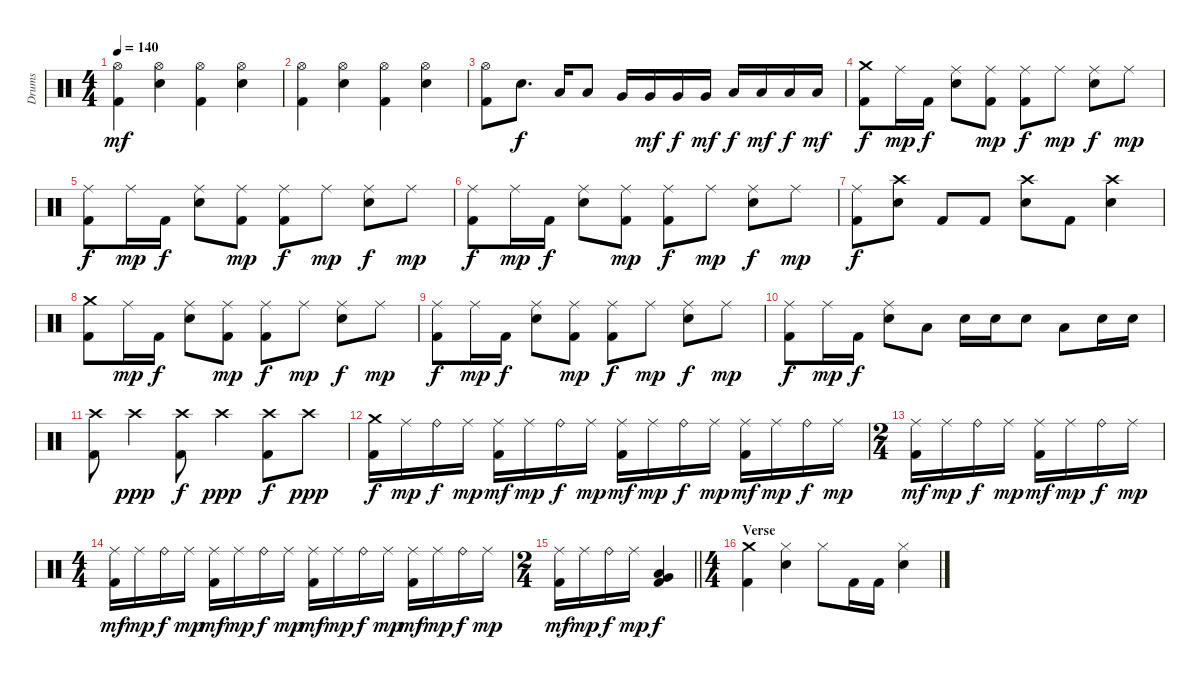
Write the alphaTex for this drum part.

\track ("Drums" "Drums") {instrument percussion}
\staff {score}
\articulation defaults
\ts (4 4)
\tempo 140
\clef neutral
\ks c
("Kick (hit) 2" "Hi-Hat (open)").4{dy mf} ("Hi-Hat (open)" "Electric Snare (hit)").4 ("Kick (hit) 2" "Hi-Hat (open)").4 ("Hi-Hat (open)" "Electric Snare (hit)").4 |
("Kick (hit) 2" "Hi-Hat (open)").4 ("Hi-Hat (open)" "Electric Snare (hit)").4 ("Kick (hit) 2" "Hi-Hat (open)").4 ("Hi-Hat (open)" "Electric Snare (hit)").4 |
("Kick (hit) 2" "Hi-Hat (open)").8 "Electric Snare (hit)".8{d dy f} "Low Tom (hit)".16 "Low Tom (hit)".8 "Very Low Tom (hit)".16 "Very Low Tom (hit)".16{dy mf} "Very Low Tom (hit)".16{dy f} "Very Low Tom (hit)".16{dy mf} "Low Floor Tom (hit)".16{dy f} "Low Floor Tom (hit)".16{dy mf} "Low Floor Tom (hit)".16{dy f} "Low Floor Tom (hit)".16{dy mf} |
("Kick (hit) 2" "Crash medium (hit)").8{dy f} "Ride (middle)".16{dy mp} "Kick (hit) 2".16{dy f} ("Ride (middle)" "Electric Snare (hit)").8 ("Kick (hit) 2" "Ride (middle)").8{dy mp} ("Kick (hit) 2" "Ride (middle)").8{dy f} "Ride (middle)".8{dy mp} ("Ride (middle)" "Electric Snare (hit)").8{dy f} "Ride (middle)".8{dy mp} |
("Kick (hit) 2" "Ride (middle)").8{dy f} "Ride (middle)".16{dy mp} "Kick (hit) 2".16{dy f} ("Ride (middle)" "Electric Snare (hit)").8 ("Kick (hit) 2" "Ride (middle)").8{dy mp} ("Kick (hit) 2" "Ride (middle)").8{dy f} "Ride (middle)".8{dy mp} ("Ride (middle)" "Electric Snare (hit)").8{dy f} "Ride (middle)".8{dy mp} |
("Kick (hit) 2" "Ride (middle)").8{dy f} "Ride (middle)".16{dy mp} "Kick (hit) 2".16{dy f} ("Ride (middle)" "Electric Snare (hit)").8 ("Kick (hit) 2" "Ride (middle)").8{dy mp} ("Kick (hit) 2" "Ride (middle)").8{dy f} "Ride (middle)".8{dy mp} ("Ride (middle)" "Electric Snare (hit)").8{dy f} "Ride (middle)".8{dy mp} |
("Kick (hit) 2" "Ride (middle)").8{dy f} ("Crash high (hit)" "Electric Snare (hit)").8 "Kick (hit) 2".8 "Kick (hit) 2".8 ("Crash high (hit)" "Electric Snare (hit)").8 "Kick (hit) 2".8 ("Crash high (hit)" "Electric Snare (hit)").4 |
("Kick (hit) 2" "Crash medium (hit)").8 "Ride (middle)".16{dy mp} "Kick (hit) 2".16{dy f} ("Ride (middle)" "Electric Snare (hit)").8 ("Kick (hit) 2" "Ride (middle)").8{dy mp} ("Kick (hit) 2" "Ride (middle)").8{dy f} "Ride (middle)".8{dy mp} ("Ride (middle)" "Electric Snare (hit)").8{dy f} "Ride (middle)".8{dy mp} |
("Kick (hit) 2" "Ride (middle)").8{dy f} "Ride (middle)".16{dy mp} "Kick (hit) 2".16{dy f} ("Ride (middle)" "Electric Snare (hit)").8 ("Kick (hit) 2" "Ride (middle)").8{dy mp} ("Kick (hit) 2" "Ride (middle)").8{dy f} "Ride (middle)".8{dy mp} ("Ride (middle)" "Electric Snare (hit)").8{dy f} "Ride (middle)".8{dy mp} |
("Kick (hit) 2" "Ride (middle)").8{dy f} "Ride (middle)".16{dy mp} "Kick (hit) 2".16{dy f} ("Ride (middle)" "Electric Snare (hit)").8 "Low Tom (hit)".8 "Electric Snare (hit)".16 "Electric Snare (hit)".16 "Electric Snare (hit)".8 "Low Tom (hit)".8 "Electric Snare (hit)".16 "Electric Snare (hit)".16 |
("Kick (hit) 2" "Crash high (hit)").8 "Crash high (hit)".4{dy ppp} ("Kick (hit) 2" "Crash high (hit)").8{dy f} "Crash high (hit)".4{dy ppp} ("Kick (hit) 2" "Crash high (hit)").8{dy f} "Crash high (hit)".8{dy ppp} |
("Kick (hit) 2" "Crash medium (hit)").16{dy f} "Ride (middle)".16{dy mp} "Ride (bell)".16{dy f} "Ride (middle)".16{dy mp} ("Kick (hit) 2" "Ride (middle)").16{dy mf} "Ride (middle)".16{dy mp} "Ride (bell)".16{dy f} "Ride (middle)".16{dy mp} ("Kick (hit) 2" "Ride (middle)").16{dy mf} "Ride (middle)".16{dy mp} "Ride (bell)".16{dy f} "Ride (middle)".16{dy mp} ("Kick (hit) 2" "Ride (middle)").16{dy mf} "Ride (middle)".16{dy mp} "Ride (bell)".16{dy f} "Ride (middle)".16{dy mp} |
\ts (2 4)
("Kick (hit) 2" "Ride (middle)").16{dy mf} "Ride (middle)".16{dy mp} "Ride (bell)".16{dy f} "Ride (middle)".16{dy mp} ("Kick (hit) 2" "Ride (middle)").16{dy mf} "Ride (middle)".16{dy mp} "Ride (bell)".16{dy f} "Ride (middle)".16{dy mp} |
\ts (4 4)
("Kick (hit) 2" "Ride (middle)").16{dy mf} "Ride (middle)".16{dy mp} "Ride (bell)".16{dy f} "Ride (middle)".16{dy mp} ("Kick (hit) 2" "Ride (middle)").16{dy mf} "Ride (middle)".16{dy mp} "Ride (bell)".16{dy f} "Ride (middle)".16{dy mp} ("Kick (hit) 2" "Ride (middle)").16{dy mf} "Ride (middle)".16{dy mp} "Ride (bell)".16{dy f} "Ride (middle)".16{dy mp} ("Kick (hit) 2" "Ride (middle)").16{dy mf} "Ride (middle)".16{dy mp} "Ride (bell)".16{dy f} "Ride (middle)".16{dy mp} |
\ts (2 4)
\barLineRight lightlight
("Kick (hit) 2" "Ride (middle)").16{dy mf} "Ride (middle)".16{dy mp} "Ride (bell)".16{dy f} "Ride (middle)".16{dy mp} ("Kick (hit) 2" "Very Low Tom (hit)" "Low Tom (hit)").4{dy f} |
\ts (4 4)
\section ("" "Verse")
("Kick (hit) 2" "Crash medium (hit)").4 ("Hi-Hat (closed)" "Electric Snare (hit)").4 "Hi-Hat (closed)".8 "Kick (hit) 2".16 "Kick (hit) 2".16 ("Hi-Hat (closed)" "Electric Snare (hit)").4
